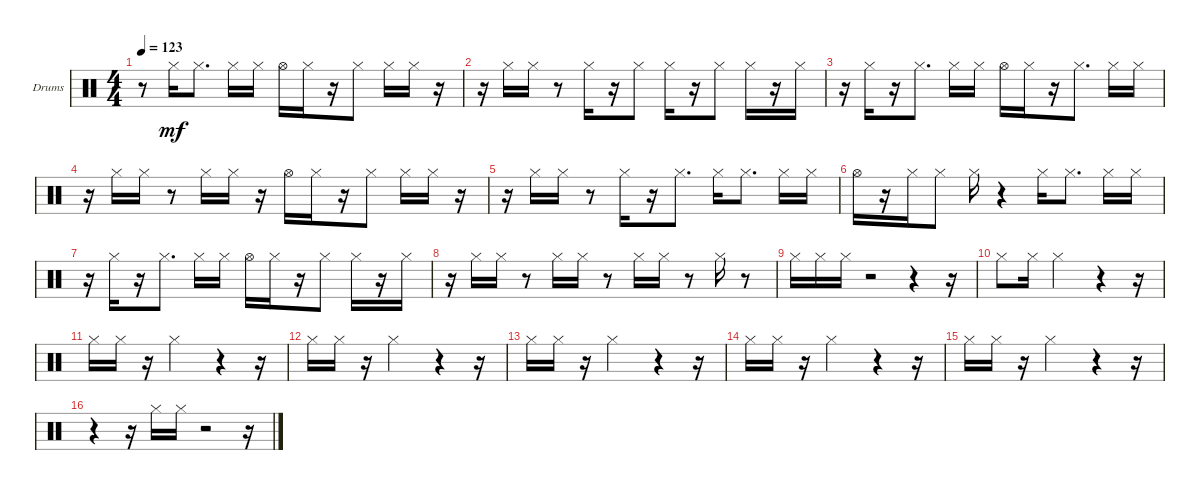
\bracketExtendMode groupsimilarinstruments
\firstSystemTrackNameOrientation horizontal
\otherSystemsTrackNameOrientation horizontal
\track ("Drums" "Drums") {instrument percussion}
\staff {score}
\articulation defaults
\ts (4 4)
\tempo 123
\clef neutral
\ks c
r.8{dy mf} "Hi-Hat (closed)".16 "Hi-Hat (closed)".8{d} "Hi-Hat (closed)".16 "Hi-Hat (closed)".16 "Hi-Hat (open)".16 "Hi-Hat (closed)".16 r.16 "Hi-Hat (closed)".8 "Hi-Hat (closed)".16 "Hi-Hat (closed)".16 r.16 |
r.16 "Hi-Hat (closed)".16 "Hi-Hat (closed)".16 r.8 "Hi-Hat (closed)".16 r.16 "Hi-Hat (closed)".8 "Hi-Hat (closed)".16 r.16 "Hi-Hat (closed)".8 "Hi-Hat (closed)".16 r.16 "Hi-Hat (closed)".16 |
r.16 "Hi-Hat (closed)".16 r.16 "Hi-Hat (closed)".8{d} "Hi-Hat (closed)".16 "Hi-Hat (closed)".16 "Hi-Hat (open)".16 "Hi-Hat (closed)".16 r.16 "Hi-Hat (closed)".8{d} "Hi-Hat (closed)".16 "Hi-Hat (closed)".16 |
r.16 "Hi-Hat (closed)".16 "Hi-Hat (closed)".16 r.8 "Hi-Hat (closed)".16 "Hi-Hat (closed)".16 r.16 "Hi-Hat (open)".16 "Hi-Hat (closed)".16 r.16 "Hi-Hat (closed)".8 "Hi-Hat (closed)".16 "Hi-Hat (closed)".16 r.16 |
r.16 "Hi-Hat (closed)".16 "Hi-Hat (closed)".16 r.8 "Hi-Hat (closed)".16 r.16 "Hi-Hat (closed)".8{d} "Hi-Hat (closed)".16 "Hi-Hat (closed)".8{d} "Hi-Hat (closed)".16 "Hi-Hat (closed)".16 |
"Hi-Hat (open)".16 r.16 "Hi-Hat (closed)".16 "Hi-Hat (closed)".8 "Hi-Hat (closed)".16 r.4 "Hi-Hat (closed)".16 "Hi-Hat (closed)".8{d} "Hi-Hat (closed)".16 "Hi-Hat (closed)".16 |
r.16 "Hi-Hat (closed)".16 r.16 "Hi-Hat (closed)".8{d} "Hi-Hat (closed)".16 "Hi-Hat (closed)".16 "Hi-Hat (open)".16 "Hi-Hat (closed)".16 r.16 "Hi-Hat (closed)".8 "Hi-Hat (closed)".16 r.16 "Hi-Hat (closed)".16 |
r.16 "Hi-Hat (closed)".16 "Hi-Hat (closed)".16 r.8 "Hi-Hat (closed)".16 "Hi-Hat (closed)".16 r.8 "Hi-Hat (closed)".16 "Hi-Hat (closed)".16 r.8 "Hi-Hat (closed)".16 r.8 |
"Hi-Hat (closed)".16 "Hi-Hat (closed)".16 "Hi-Hat (closed)".16 r.2 r.4 r.16 |
"Hi-Hat (closed)".8 "Hi-Hat (closed)".16 "Hi-Hat (closed)".2 r.4 r.16 |
"Hi-Hat (closed)".16 "Hi-Hat (closed)".16 r.16 "Hi-Hat (closed)".2 r.4 r.16 |
"Hi-Hat (closed)".16 "Hi-Hat (closed)".16 r.16 "Hi-Hat (closed)".2 r.4 r.16 |
"Hi-Hat (closed)".16 "Hi-Hat (closed)".16 r.16 "Hi-Hat (closed)".2 r.4 r.16 |
"Hi-Hat (closed)".16 "Hi-Hat (closed)".16 r.16 "Hi-Hat (closed)".2 r.4 r.16 |
"Hi-Hat (closed)".16 "Hi-Hat (closed)".16 r.16 "Hi-Hat (closed)".2 r.4 r.16 |
r.4 r.16 "Hi-Hat (closed)".16 "Hi-Hat (closed)".16 r.2 r.16
